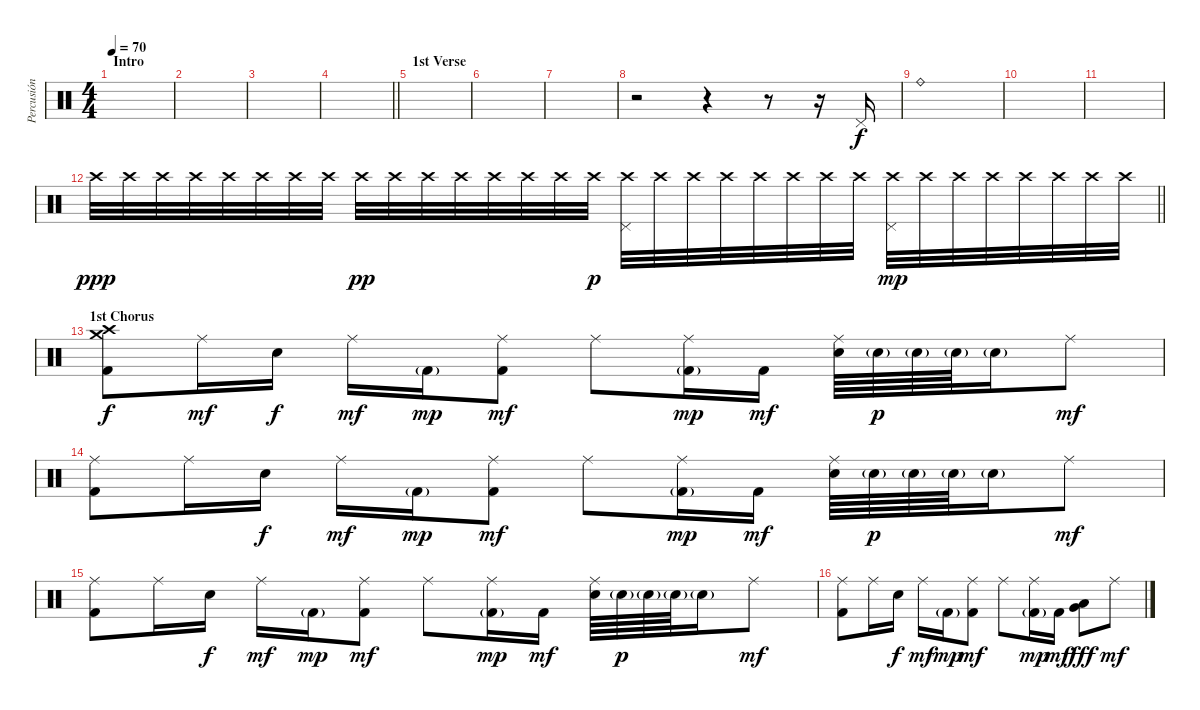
\track ("Percusión" "Percusión") {instrument percussion}
\staff {score}
\articulation defaults
\ts (4 4)
\section ("" "Intro")
\tempo 70
\clef neutral
\ks c
|
|
|
\barLineRight lightlight
|
\section ("" "1st Verse")
|
|
|
r.2 r.4 r.8 r.16 "Pedal Hi-Hat (hit)".16 |
"Ride (bell)".1{dy f} |
|
|
\barLineRight lightlight "Crash high (hit)".32{dy ppp} "Crash high (hit)".32 "Crash high (hit)".32 "Crash high (hit)".32 "Crash high (hit)".32 "Crash high (hit)".32 "Crash high (hit)".32 "Crash high (hit)".32 "Crash high (hit)".32{dy pp} "Crash high (hit)".32 "Crash high (hit)".32 "Crash high (hit)".32 "Crash high (hit)".32 "Crash high (hit)".32 "Crash high (hit)".32 "Crash high (hit)".32{dy p}
("Crash high (hit)" "Pedal Hi-Hat (hit)").32 "Crash high (hit)".32 "Crash high (hit)".32 "Crash high (hit)".32 "Crash high (hit)".32 "Crash high (hit)".32 "Crash high (hit)".32 "Crash high (hit)".32 ("Crash high (hit)" "Pedal Hi-Hat (hit)").32{dy mp} "Crash high (hit)".32 "Crash high (hit)".32 "Crash high (hit)".32 "Crash high (hit)".32 "Crash high (hit)".32 "Crash high (hit)".32 "Crash high (hit)".32 |
\section ("" "1st Chorus")
("Crash medium (hit)" "Crash high (hit)" "Kick (hit) 2").8{dy f} "Ride (middle)".16{dy mf} "Electric Snare (hit)".16{dy f} "Ride (middle)".16{dy mf} "Kick (hit) 2"{g}.16{dy mp} ("Ride (middle)" "Kick (hit) 2").8{dy mf} "Ride (middle)".8 ("Ride (middle)" "Kick (hit) 2"{g}).16{dy mp} "Kick (hit) 2".16{dy mf} ("Ride (middle)" "Electric Snare (hit)").64 "Electric Snare (hit)"{g}.64{dy p} "Electric Snare (hit)"{g}.64 "Electric Snare (hit)"{g}.64 "Electric Snare (hit)"{g}.16 "Ride (middle)".8{dy mf} |
("Ride (middle)" "Kick (hit) 2").8 "Ride (middle)".16 "Electric Snare (hit)".16{dy f} "Ride (middle)".16{dy mf} "Kick (hit) 2"{g}.16{dy mp} ("Ride (middle)" "Kick (hit) 2").8{dy mf} "Ride (middle)".8 ("Ride (middle)" "Kick (hit) 2"{g}).16{dy mp} "Kick (hit) 2".16{dy mf} ("Ride (middle)" "Electric Snare (hit)").64 "Electric Snare (hit)"{g}.64{dy p} "Electric Snare (hit)"{g}.64 "Electric Snare (hit)"{g}.64 "Electric Snare (hit)"{g}.16 "Ride (middle)".8{dy mf} |
("Ride (middle)" "Kick (hit) 2").8 "Ride (middle)".16 "Electric Snare (hit)".16{dy f} "Ride (middle)".16{dy mf} "Kick (hit) 2"{g}.16{dy mp} ("Ride (middle)" "Kick (hit) 2").8{dy mf} "Ride (middle)".8 ("Ride (middle)" "Kick (hit) 2"{g}).16{dy mp} "Kick (hit) 2".16{dy mf} ("Ride (middle)" "Electric Snare (hit)").64 "Electric Snare (hit)"{g}.64{dy p} "Electric Snare (hit)"{g}.64 "Electric Snare (hit)"{g}.64 "Electric Snare (hit)"{g}.16 "Ride (middle)".8{dy mf} |
("Ride (middle)" "Kick (hit) 2").8 "Ride (middle)".16 "Electric Snare (hit)".16{dy f} "Ride (middle)".16{dy mf} "Kick (hit) 2"{g}.16{dy mp} ("Ride (middle)" "Kick (hit) 2").8{dy mf} "Ride (middle)".8 ("Ride (middle)" "Kick (hit) 2"{g}).16{dy mp} "Kick (hit) 2".16{dy mf} ("Very Low Tom (hit)" "Low Floor Tom (hit)").8{dy fff} "Ride (middle)".8{dy mf}
